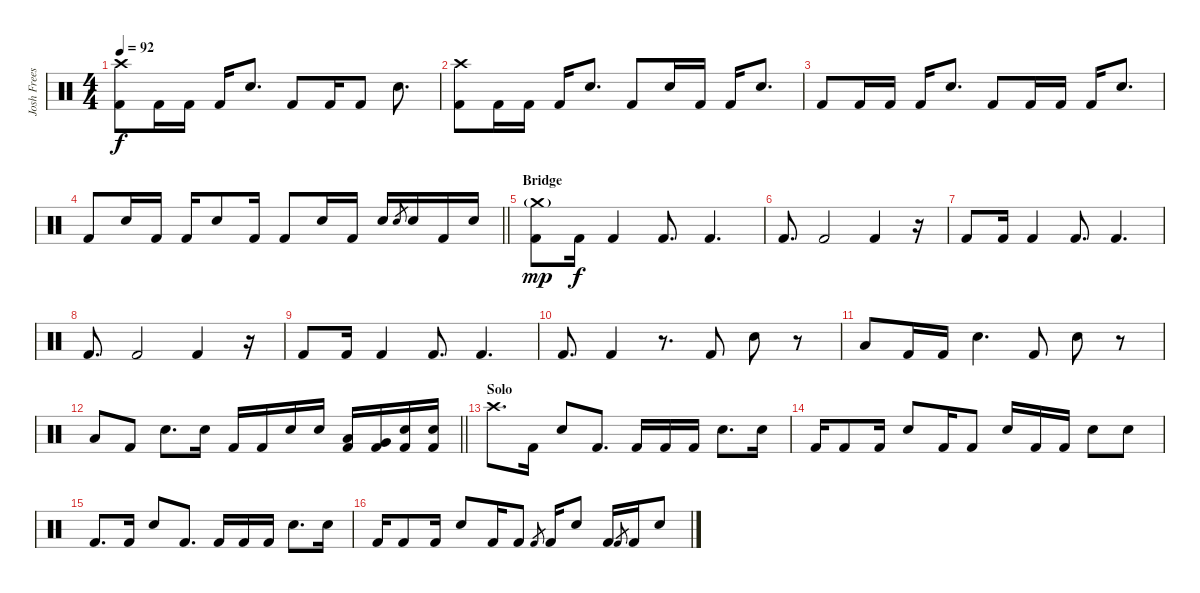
\track ("Josh Freese (Studio Drummer)" "Josh Frees") {instrument percussion}
\staff {score}
\articulation defaults
\ts (4 4)
\tempo 92
\clef neutral
\ks c
("Crash high (hit)" "Kick (hit) 2").8{dy f} "Kick (hit) 2".16 "Kick (hit) 2".16 "Kick (hit) 2".16 "Electric Snare (hit)".8{d} "Kick (hit) 2".8 "Kick (hit) 2".16 "Kick (hit) 2".8 "Electric Snare (hit)".8{d} |
("Crash high (hit)" "Kick (hit) 2").8 "Kick (hit) 2".16 "Kick (hit) 2".16 "Kick (hit) 2".16 "Electric Snare (hit)".8{d} "Kick (hit) 2".8 "Electric Snare (hit)".16 "Kick (hit) 2".16 "Kick (hit) 2".16 "Electric Snare (hit)".8{d} |
"Kick (hit) 2".8 "Kick (hit) 2".16 "Kick (hit) 2".16 "Kick (hit) 2".16 "Electric Snare (hit)".8{d} "Kick (hit) 2".8 "Kick (hit) 2".16 "Kick (hit) 2".16 "Kick (hit) 2".16 "Electric Snare (hit)".8{d} |
\barLineRight lightlight "Kick (hit) 2".8 "Electric Snare (hit)".16 "Kick (hit) 2".16 "Kick (hit) 2".16 "Electric Snare (hit)".8 "Kick (hit) 2".16 "Kick (hit) 2".8 "Electric Snare (hit)".16 "Kick (hit) 2".16 "Electric Snare (hit)".16 "Electric Snare (hit)".8{gr} "Electric Snare (hit)".16 "Kick (hit) 2".16 "Electric Snare (hit)".16
|
\section ("" "Bridge")
("Kick (hit) 2" "Crash medium (hit)"{g}).8{dy mp} "Kick (hit) 2".16{dy f} "Kick (hit) 2".4 "Kick (hit) 2".8{d} "Kick (hit) 2".4{d} |
"Kick (hit) 2".8{d} "Kick (hit) 2".2 "Kick (hit) 2".4 r.16 |
"Kick (hit) 2".8 "Kick (hit) 2".16 "Kick (hit) 2".4 "Kick (hit) 2".8{d} "Kick (hit) 2".4{d} |
"Kick (hit) 2".8{d} "Kick (hit) 2".2 "Kick (hit) 2".4 r.16 |
"Kick (hit) 2".8 "Kick (hit) 2".16 "Kick (hit) 2".4 "Kick (hit) 2".8{d} "Kick (hit) 2".4{d} |
"Kick (hit) 2".8{d} "Kick (hit) 2".4 r.8{d} "Kick (hit) 2".8 "Electric Snare (hit)".8 r.8 |
"Low Tom (hit)".8 "Kick (hit) 2".16 "Kick (hit) 2".16 "Electric Snare (hit)".4{d} "Kick (hit) 2".8 "Electric Snare (hit)".8 r.8 |
\barLineRight lightlight "Low Tom (hit)".8 "Kick (hit) 2".8 "Electric Snare (hit)".8{d} "Electric Snare (hit)".16 "Kick (hit) 2".16 "Kick (hit) 2".16 "Electric Snare (hit)".16 "Electric Snare (hit)".16
("Low Tom (hit)" "Kick (hit) 2").16 ("Very Low Tom (hit)" "Kick (hit) 2").16 ("Electric Snare (hit)" "Kick (hit) 2").16 ("Electric Snare (hit)" "Kick (hit) 2").16 |
\section ("" "Solo")
"Crash high (hit)".8{d} "Kick (hit) 2".16 "Electric Snare (hit)".8 "Kick (hit) 2".8{d} "Kick (hit) 2".16 "Kick (hit) 2".16 "Kick (hit) 2".16 "Electric Snare (hit)".8{d} "Electric Snare (hit)".16 |
"Kick (hit) 2".16 "Kick (hit) 2".8 "Kick (hit) 2".16 "Electric Snare (hit)".8 "Kick (hit) 2".16 "Kick (hit) 2".8 "Electric Snare (hit)".16 "Kick (hit) 2".16 "Kick (hit) 2".16 "Electric Snare (hit)".8 "Electric Snare (hit)".8 |
"Kick (hit) 2".8{d} "Kick (hit) 2".16 "Electric Snare (hit)".8 "Kick (hit) 2".8{d} "Kick (hit) 2".16 "Kick (hit) 2".16 "Kick (hit) 2".16 "Electric Snare (hit)".8{d} "Electric Snare (hit)".16 |
"Kick (hit) 2".16 "Kick (hit) 2".8 "Kick (hit) 2".16 "Electric Snare (hit)".8 "Kick (hit) 2".16 "Kick (hit) 2".8 "Kick (hit) 2".8{gr} "Kick (hit) 2".16 "Electric Snare (hit)".8 "Kick (hit) 2".16 "Kick (hit) 2".8{gr} "Kick (hit) 2".16 "Electric Snare (hit)".8
